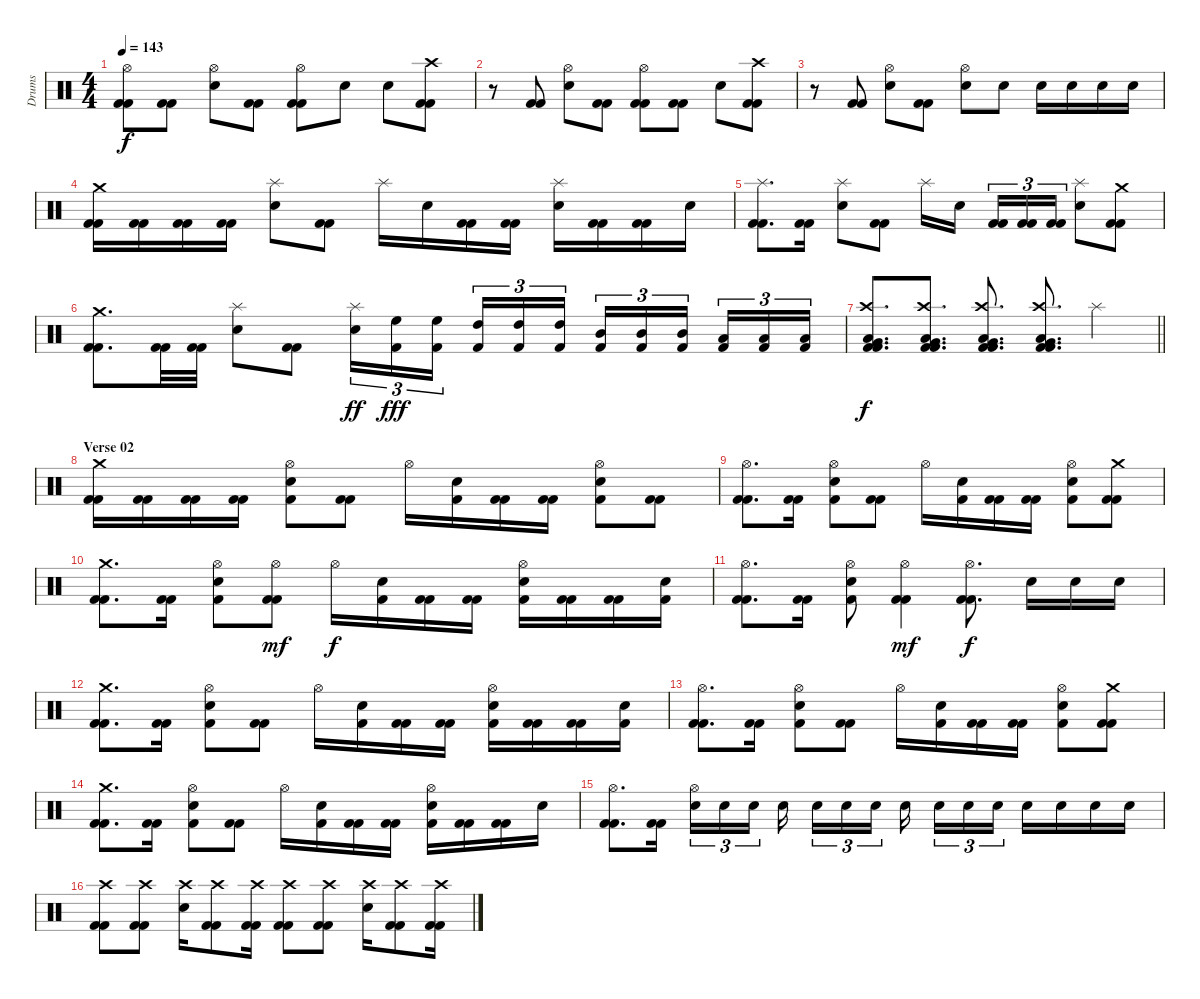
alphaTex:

\track ("Drums" "Drums") {instrument percussion}
\staff {score}
\articulation defaults
\ts (4 4)
\tempo 143
\clef neutral
\ks c
("Hi-Hat (open)" "Kick (hit) 2" "Kick (hit) 2").8{dy f} ("Kick (hit) 2" "Kick (hit) 2").8 ("Hi-Hat (open)" "Electric Snare (hit)").8 ("Kick (hit) 2" "Kick (hit) 2").8 ("Hi-Hat (open)" "Kick (hit) 2" "Kick (hit) 2").8 "Electric Snare (hit)".8 "Electric Snare (hit)".8 ("Crash high (hit)" "Kick (hit) 2" "Kick (hit) 2").8 |
r.8 ("Kick (hit) 2" "Kick (hit) 2").8 ("Hi-Hat (open)" "Electric Snare (hit)").8 ("Kick (hit) 2" "Kick (hit) 2").8 ("Hi-Hat (open)" "Kick (hit) 2" "Kick (hit) 2").8 ("Kick (hit) 2" "Kick (hit) 2").8 "Electric Snare (hit)".8 ("Crash high (hit)" "Kick (hit) 2" "Kick (hit) 2").8 |
r.8 ("Kick (hit) 2" "Kick (hit) 2").8 ("Hi-Hat (open)" "Electric Snare (hit)").8 ("Kick (hit) 2" "Kick (hit) 2").8 ("Hi-Hat (open)" "Electric Snare (hit)").8 "Electric Snare (hit)".8 "Electric Snare (hit)".16 "Electric Snare (hit)".16 "Electric Snare (hit)".16 "Electric Snare (hit)".16 |
("Crash medium (hit)" "Kick (hit) 2" "Kick (hit) 2").16 ("Kick (hit) 2" "Kick (hit) 2").16 ("Kick (hit) 2" "Kick (hit) 2").16 ("Kick (hit) 2" "Kick (hit) 2").16 ("Splash (hit)" "Electric Snare (hit)").8 ("Kick (hit) 2" "Kick (hit) 2").8 "Splash (hit)".16 "Electric Snare (hit)".16 ("Kick (hit) 2" "Kick (hit) 2").16 ("Kick (hit) 2" "Kick (hit) 2").16 ("Splash (hit)" "Electric Snare (hit)").16 ("Kick (hit) 2" "Kick (hit) 2").16 ("Kick (hit) 2" "Kick (hit) 2").16 "Electric Snare (hit)".16 |
("Splash (hit)" "Kick (hit) 2" "Kick (hit) 2").8{d} ("Kick (hit) 2" "Kick (hit) 2").16 ("Splash (hit)" "Electric Snare (hit)").8 ("Kick (hit) 2" "Kick (hit) 2").8 "Splash (hit)".16 "Electric Snare (hit)".16{beam splitsecondary} ("Kick (hit) 2" "Kick (hit) 2").16{tu (3 2)} ("Kick (hit) 2" "Kick (hit) 2").16{tu (3 2)} ("Kick (hit) 2" "Kick (hit) 2").16{tu (3 2)} ("Splash (hit)" "Electric Snare (hit)").8 ("Crash medium (hit)" "Kick (hit) 2" "Kick (hit) 2").8 |
("Crash medium (hit)" "Kick (hit) 2" "Kick (hit) 2").8{d} ("Kick (hit) 2" "Kick (hit) 2").32 ("Kick (hit) 2" "Kick (hit) 2").32 ("Splash (hit)" "Electric Snare (hit)").8 ("Kick (hit) 2" "Kick (hit) 2").8 ("Splash (hit)" "Electric Snare (hit)").16{tu (3 2) dy ff} ("High Floor Tom (hit)" "Kick (hit) 2").16{tu (3 2) dy fff} ("High Floor Tom (hit)" "Kick (hit) 2").16{tu (3 2) beam splitsecondary} ("High Tom (hit)" "Kick (hit) 2").16{tu (3 2)} ("High Tom (hit)" "Kick (hit) 2").16{tu (3 2)} ("High Tom (hit)" "Kick (hit) 2").16{tu (3 2)} ("Mid Tom (hit)" "Kick (hit) 2").16{tu (3 2)} ("Mid Tom (hit)" "Kick (hit) 2").16{tu (3 2)} ("Mid Tom (hit)" "Kick (hit) 2").16{tu (3 2) beam splitsecondary} ("Low Tom (hit)" "Kick (hit) 2").16{tu (3 2)} ("Low Tom (hit)" "Kick (hit) 2").16{tu (3 2)} ("Low Tom (hit)" "Kick (hit) 2").16{tu (3 2)} |
\barLineRight lightlight
("Crash high (hit)" "Very Low Tom (hit)" "Low Floor Tom (hit)" "Kick (hit) 2" "Kick (hit) 2").8{d dy f} ("Crash high (hit)" "Very Low Tom (hit)" "Low Floor Tom (hit)" "Kick (hit) 2" "Kick (hit) 2").8{d} ("Crash high (hit)" "Very Low Tom (hit)" "Low Floor Tom (hit)" "Kick (hit) 2" "Kick (hit) 2").8{d} ("Crash high (hit)" "Very Low Tom (hit)" "Low Floor Tom (hit)" "Kick (hit) 2" "Kick (hit) 2").8{d} "Splash (hit)".4 |
\section ("" "Verse 02")
("Crash medium (hit)" "Kick (hit) 2" "Kick (hit) 2").16 ("Kick (hit) 2" "Kick (hit) 2").16 ("Kick (hit) 2" "Kick (hit) 2").16 ("Kick (hit) 2" "Kick (hit) 2").16 ("Hi-Hat (open)" "Electric Snare (hit)" "Kick (hit) 2").8 ("Kick (hit) 2" "Kick (hit) 2").8 "Hi-Hat (open)".16 ("Electric Snare (hit)" "Kick (hit) 2").16 ("Kick (hit) 2" "Kick (hit) 2").16 ("Kick (hit) 2" "Kick (hit) 2").16 ("Hi-Hat (open)" "Electric Snare (hit)" "Kick (hit) 2").8 ("Kick (hit) 2" "Kick (hit) 2").8 |
("Hi-Hat (open)" "Kick (hit) 2" "Kick (hit) 2").8{d} ("Kick (hit) 2" "Kick (hit) 2").16 ("Hi-Hat (open)" "Electric Snare (hit)" "Kick (hit) 2").8 ("Kick (hit) 2" "Kick (hit) 2").8 "Hi-Hat (open)".16 ("Electric Snare (hit)" "Kick (hit) 2").16 ("Kick (hit) 2" "Kick (hit) 2").16 ("Kick (hit) 2" "Kick (hit) 2").16 ("Hi-Hat (open)" "Electric Snare (hit)" "Kick (hit) 2").8 ("Crash medium (hit)" "Kick (hit) 2" "Kick (hit) 2").8 |
("Crash medium (hit)" "Kick (hit) 2" "Kick (hit) 2").8{d} ("Kick (hit) 2" "Kick (hit) 2").16 ("Hi-Hat (open)" "Electric Snare (hit)" "Kick (hit) 2").8 ("Hi-Hat (open)" "Kick (hit) 2" "Kick (hit) 2").8{dy mf} "Hi-Hat (open)".16{dy f} ("Electric Snare (hit)" "Kick (hit) 2").16 ("Kick (hit) 2" "Kick (hit) 2").16 ("Kick (hit) 2" "Kick (hit) 2").16 ("Hi-Hat (open)" "Electric Snare (hit)" "Kick (hit) 2").16 ("Kick (hit) 2" "Kick (hit) 2").16 ("Kick (hit) 2" "Kick (hit) 2").16 ("Electric Snare (hit)" "Kick (hit) 2").16 |
("Hi-Hat (open)" "Kick (hit) 2" "Kick (hit) 2").8{d} ("Kick (hit) 2" "Kick (hit) 2").16 ("Hi-Hat (open)" "Electric Snare (hit)" "Kick (hit) 2").8 ("Hi-Hat (open)" "Kick (hit) 2" "Kick (hit) 2").4{dy mf} ("Hi-Hat (open)" "Kick (hit) 2" "Kick (hit) 2").8{d dy f} "Electric Snare (hit)".16 "Electric Snare (hit)".16 "Electric Snare (hit)".16 |
("Crash medium (hit)" "Kick (hit) 2" "Kick (hit) 2").8{d} ("Kick (hit) 2" "Kick (hit) 2").16 ("Hi-Hat (open)" "Electric Snare (hit)" "Kick (hit) 2").8 ("Kick (hit) 2" "Kick (hit) 2").8 "Hi-Hat (open)".16 ("Electric Snare (hit)" "Kick (hit) 2").16 ("Kick (hit) 2" "Kick (hit) 2").16 ("Kick (hit) 2" "Kick (hit) 2").16 ("Hi-Hat (open)" "Electric Snare (hit)" "Kick (hit) 2").16 ("Kick (hit) 2" "Kick (hit) 2").16 ("Kick (hit) 2" "Kick (hit) 2").16 ("Electric Snare (hit)" "Kick (hit) 2").16 |
("Hi-Hat (open)" "Kick (hit) 2" "Kick (hit) 2").8{d} ("Kick (hit) 2" "Kick (hit) 2").16 ("Hi-Hat (open)" "Electric Snare (hit)" "Kick (hit) 2").8 ("Kick (hit) 2" "Kick (hit) 2").8 "Hi-Hat (open)".16 ("Electric Snare (hit)" "Kick (hit) 2").16 ("Kick (hit) 2" "Kick (hit) 2").16 ("Kick (hit) 2" "Kick (hit) 2").16 ("Hi-Hat (open)" "Electric Snare (hit)" "Kick (hit) 2").8 ("Crash medium (hit)" "Kick (hit) 2" "Kick (hit) 2").8 |
("Crash medium (hit)" "Kick (hit) 2" "Kick (hit) 2").8{d} ("Kick (hit) 2" "Kick (hit) 2").16 ("Hi-Hat (open)" "Electric Snare (hit)" "Kick (hit) 2").8 ("Kick (hit) 2" "Kick (hit) 2").8 "Hi-Hat (open)".16 ("Electric Snare (hit)" "Kick (hit) 2").16 ("Kick (hit) 2" "Kick (hit) 2").16 ("Kick (hit) 2" "Kick (hit) 2").16 ("Hi-Hat (open)" "Electric Snare (hit)" "Kick (hit) 2").16 ("Kick (hit) 2" "Kick (hit) 2").16 ("Kick (hit) 2" "Kick (hit) 2").16 "Electric Snare (hit)".16 |
("Hi-Hat (open)" "Kick (hit) 2" "Kick (hit) 2").8{d} ("Kick (hit) 2" "Kick (hit) 2").16 ("Hi-Hat (open)" "Electric Snare (hit)").16{tu (3 2)} "Electric Snare (hit)".16{tu (3 2)} "Electric Snare (hit)".16{tu (3 2) beam splitsecondary} "Electric Snare (hit)".16{beam splitsecondary} "Electric Snare (hit)".16{tu (3 2)} "Electric Snare (hit)".16{tu (3 2)} "Electric Snare (hit)".16{tu (3 2) beam splitsecondary} "Electric Snare (hit)".16{beam splitsecondary} "Electric Snare (hit)".16{tu (3 2)} "Electric Snare (hit)".16{tu (3 2)} "Electric Snare (hit)".16{tu (3 2)} "Electric Snare (hit)".16 "Electric Snare (hit)".16 "Electric Snare (hit)".16 "Electric Snare (hit)".16 |
("Crash high (hit)" "Kick (hit) 2" "Kick (hit) 2").8 ("Crash high (hit)" "Kick (hit) 2" "Kick (hit) 2").8 ("Crash high (hit)" "Electric Snare (hit)").16 ("Crash high (hit)" "Kick (hit) 2" "Kick (hit) 2").8 ("Crash high (hit)" "Kick (hit) 2" "Kick (hit) 2").16 ("Crash high (hit)" "Kick (hit) 2" "Kick (hit) 2").8 ("Crash high (hit)" "Kick (hit) 2" "Kick (hit) 2").8 ("Crash high (hit)" "Electric Snare (hit)").16 ("Crash high (hit)" "Kick (hit) 2" "Kick (hit) 2").8 ("Crash high (hit)" "Kick (hit) 2" "Kick (hit) 2").16
